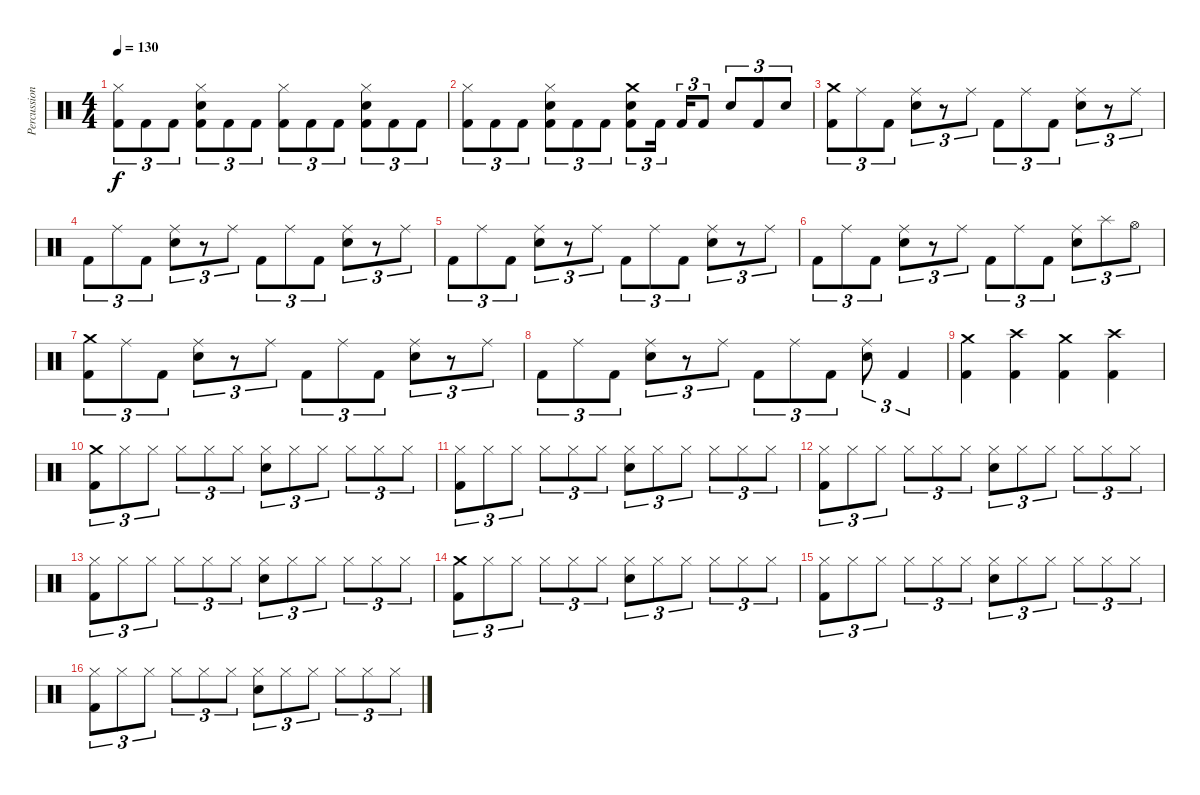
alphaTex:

\track ("Percussions" "Percussion") {instrument percussion}
\staff {score}
\articulation defaults
\ts (4 4)
\tempo 130
\clef neutral
\ks c
("Hi-Hat (closed)" "Kick (hit) 2").8{tu (3 2) dy f} "Kick (hit) 2".8{tu (3 2)} "Kick (hit) 2".8{tu (3 2)} ("Hi-Hat (closed)" "Electric Snare (hit)" "Kick (hit) 2").8{tu (3 2)} "Kick (hit) 2".8{tu (3 2)} "Kick (hit) 2".8{tu (3 2)} ("Hi-Hat (closed)" "Kick (hit) 2").8{tu (3 2)} "Kick (hit) 2".8{tu (3 2)} "Kick (hit) 2".8{tu (3 2)} ("Hi-Hat (closed)" "Electric Snare (hit)" "Kick (hit) 2").8{tu (3 2)} "Kick (hit) 2".8{tu (3 2)} "Kick (hit) 2".8{tu (3 2)} |
("Hi-Hat (closed)" "Kick (hit) 2").8{tu (3 2)} "Kick (hit) 2".8{tu (3 2)} "Kick (hit) 2".8{tu (3 2)} ("Hi-Hat (closed)" "Electric Snare (hit)" "Kick (hit) 2").8{tu (3 2)} "Kick (hit) 2".8{tu (3 2)} "Kick (hit) 2".8{tu (3 2)} ("Crash medium (hit)" "Electric Snare (hit)" "Kick (hit) 2").8{tu (3 2)} "Kick (hit) 2".16{tu (3 2) beam splitsecondary} "Kick (hit) 2".16{tu (3 2)} "Kick (hit) 2".8{tu (3 2)} "Electric Snare (hit)".8{tu (3 2)} "Kick (hit) 2".8{tu (3 2)} "Electric Snare (hit)".8{tu (3 2)} |
("Crash medium (hit)" "Kick (hit) 2").8{tu (3 2)} "Ride (middle)".8{tu (3 2)} "Kick (hit) 2".8{tu (3 2)} ("Ride (middle)" "Electric Snare (hit)").8{tu (3 2)} r.8{tu (3 2)} "Ride (middle)".8{tu (3 2)} "Kick (hit) 2".8{tu (3 2)} "Ride (middle)".8{tu (3 2)} "Kick (hit) 2".8{tu (3 2)} ("Ride (middle)" "Electric Snare (hit)").8{tu (3 2)} r.8{tu (3 2)} "Ride (middle)".8{tu (3 2)} |
"Kick (hit) 2".8{tu (3 2)} "Ride (middle)".8{tu (3 2)} "Kick (hit) 2".8{tu (3 2)} ("Ride (middle)" "Electric Snare (hit)").8{tu (3 2)} r.8{tu (3 2)} "Ride (middle)".8{tu (3 2)} "Kick (hit) 2".8{tu (3 2)} "Ride (middle)".8{tu (3 2)} "Kick (hit) 2".8{tu (3 2)} ("Ride (middle)" "Electric Snare (hit)").8{tu (3 2)} r.8{tu (3 2)} "Ride (middle)".8{tu (3 2)} |
"Kick (hit) 2".8{tu (3 2)} "Ride (middle)".8{tu (3 2)} "Kick (hit) 2".8{tu (3 2)} ("Ride (middle)" "Electric Snare (hit)").8{tu (3 2)} r.8{tu (3 2)} "Ride (middle)".8{tu (3 2)} "Kick (hit) 2".8{tu (3 2)} "Ride (middle)".8{tu (3 2)} "Kick (hit) 2".8{tu (3 2)} ("Ride (middle)" "Electric Snare (hit)").8{tu (3 2)} r.8{tu (3 2)} "Ride (middle)".8{tu (3 2)} |
"Kick (hit) 2".8{tu (3 2)} "Ride (middle)".8{tu (3 2)} "Kick (hit) 2".8{tu (3 2)} ("Ride (middle)" "Electric Snare (hit)").8{tu (3 2)} r.8{tu (3 2)} "Ride (middle)".8{tu (3 2)} "Kick (hit) 2".8{tu (3 2)} "Ride (middle)".8{tu (3 2)} "Kick (hit) 2".8{tu (3 2)} ("Ride (middle)" "Electric Snare (hit)").8{tu (3 2)} "Splash (hit)".8{tu (3 2)} "Hi-Hat (open)".8{tu (3 2)} |
("Crash medium (hit)" "Kick (hit) 2").8{tu (3 2)} "Ride (middle)".8{tu (3 2)} "Kick (hit) 2".8{tu (3 2)} ("Ride (middle)" "Electric Snare (hit)").8{tu (3 2)} r.8{tu (3 2)} "Ride (middle)".8{tu (3 2)} "Kick (hit) 2".8{tu (3 2)} "Ride (middle)".8{tu (3 2)} "Kick (hit) 2".8{tu (3 2)} ("Ride (middle)" "Electric Snare (hit)").8{tu (3 2)} r.8{tu (3 2)} "Ride (middle)".8{tu (3 2)} |
"Kick (hit) 2".8{tu (3 2)} "Ride (middle)".8{tu (3 2)} "Kick (hit) 2".8{tu (3 2)} ("Ride (middle)" "Electric Snare (hit)").8{tu (3 2)} r.8{tu (3 2)} "Ride (middle)".8{tu (3 2)} "Kick (hit) 2".8{tu (3 2)} "Ride (middle)".8{tu (3 2)} "Kick (hit) 2".8{tu (3 2)} ("Ride (middle)" "Electric Snare (hit)").8{tu (3 2)} "Kick (hit) 2".4{tu (3 2)} |
("Crash medium (hit)" "Kick (hit) 2").4 ("Crash high (hit)" "Kick (hit) 2").4 ("Crash medium (hit)" "Kick (hit) 2").4 ("Crash high (hit)" "Kick (hit) 2").4 |
("Crash medium (hit)" "Kick (hit) 2").8{tu (3 2)} "Hi-Hat (closed)".8{tu (3 2)} "Hi-Hat (closed)".8{tu (3 2)} "Hi-Hat (closed)".8{tu (3 2)} "Hi-Hat (closed)".8{tu (3 2)} "Hi-Hat (closed)".8{tu (3 2)} ("Hi-Hat (closed)" "Electric Snare (hit)").8{tu (3 2)} "Hi-Hat (closed)".8{tu (3 2)} "Hi-Hat (closed)".8{tu (3 2)} "Hi-Hat (closed)".8{tu (3 2)} "Hi-Hat (closed)".8{tu (3 2)} "Hi-Hat (closed)".8{tu (3 2)} |
("Hi-Hat (closed)" "Kick (hit) 2").8{tu (3 2)} "Hi-Hat (closed)".8{tu (3 2)} "Hi-Hat (closed)".8{tu (3 2)} "Hi-Hat (closed)".8{tu (3 2)} "Hi-Hat (closed)".8{tu (3 2)} "Hi-Hat (closed)".8{tu (3 2)} ("Hi-Hat (closed)" "Electric Snare (hit)").8{tu (3 2)} "Hi-Hat (closed)".8{tu (3 2)} "Hi-Hat (closed)".8{tu (3 2)} "Hi-Hat (closed)".8{tu (3 2)} "Hi-Hat (closed)".8{tu (3 2)} "Hi-Hat (closed)".8{tu (3 2)} |
("Hi-Hat (closed)" "Kick (hit) 2").8{tu (3 2)} "Hi-Hat (closed)".8{tu (3 2)} "Hi-Hat (closed)".8{tu (3 2)} "Hi-Hat (closed)".8{tu (3 2)} "Hi-Hat (closed)".8{tu (3 2)} "Hi-Hat (closed)".8{tu (3 2)} ("Hi-Hat (closed)" "Electric Snare (hit)").8{tu (3 2)} "Hi-Hat (closed)".8{tu (3 2)} "Hi-Hat (closed)".8{tu (3 2)} "Hi-Hat (closed)".8{tu (3 2)} "Hi-Hat (closed)".8{tu (3 2)} "Hi-Hat (closed)".8{tu (3 2)} |
("Hi-Hat (closed)" "Kick (hit) 2").8{tu (3 2)} "Hi-Hat (closed)".8{tu (3 2)} "Hi-Hat (closed)".8{tu (3 2)} "Hi-Hat (closed)".8{tu (3 2)} "Hi-Hat (closed)".8{tu (3 2)} "Hi-Hat (closed)".8{tu (3 2)} ("Hi-Hat (closed)" "Electric Snare (hit)").8{tu (3 2)} "Hi-Hat (closed)".8{tu (3 2)} "Hi-Hat (closed)".8{tu (3 2)} "Hi-Hat (closed)".8{tu (3 2)} "Hi-Hat (closed)".8{tu (3 2)} "Hi-Hat (closed)".8{tu (3 2)} |
("Crash medium (hit)" "Kick (hit) 2").8{tu (3 2)} "Hi-Hat (closed)".8{tu (3 2)} "Hi-Hat (closed)".8{tu (3 2)} "Hi-Hat (closed)".8{tu (3 2)} "Hi-Hat (closed)".8{tu (3 2)} "Hi-Hat (closed)".8{tu (3 2)} ("Hi-Hat (closed)" "Electric Snare (hit)").8{tu (3 2)} "Hi-Hat (closed)".8{tu (3 2)} "Hi-Hat (closed)".8{tu (3 2)} "Hi-Hat (closed)".8{tu (3 2)} "Hi-Hat (closed)".8{tu (3 2)} "Hi-Hat (closed)".8{tu (3 2)} |
("Hi-Hat (closed)" "Kick (hit) 2").8{tu (3 2)} "Hi-Hat (closed)".8{tu (3 2)} "Hi-Hat (closed)".8{tu (3 2)} "Hi-Hat (closed)".8{tu (3 2)} "Hi-Hat (closed)".8{tu (3 2)} "Hi-Hat (closed)".8{tu (3 2)} ("Hi-Hat (closed)" "Electric Snare (hit)").8{tu (3 2)} "Hi-Hat (closed)".8{tu (3 2)} "Hi-Hat (closed)".8{tu (3 2)} "Hi-Hat (closed)".8{tu (3 2)} "Hi-Hat (closed)".8{tu (3 2)} "Hi-Hat (closed)".8{tu (3 2)} |
("Hi-Hat (closed)" "Kick (hit) 2").8{tu (3 2)} "Hi-Hat (closed)".8{tu (3 2)} "Hi-Hat (closed)".8{tu (3 2)} "Hi-Hat (closed)".8{tu (3 2)} "Hi-Hat (closed)".8{tu (3 2)} "Hi-Hat (closed)".8{tu (3 2)} ("Hi-Hat (closed)" "Electric Snare (hit)").8{tu (3 2)} "Hi-Hat (closed)".8{tu (3 2)} "Hi-Hat (closed)".8{tu (3 2)} "Hi-Hat (closed)".8{tu (3 2)} "Hi-Hat (closed)".8{tu (3 2)} "Hi-Hat (closed)".8{tu (3 2)}
